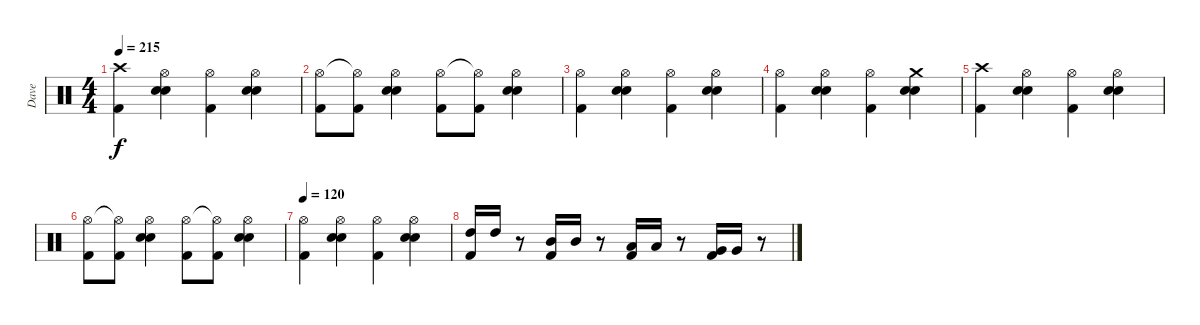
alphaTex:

\track ("Dave" "Dave") {instrument percussion}
\staff {score}
\articulation defaults
\ts (4 4)
\tempo 215
\clef neutral
\ks c
("Crash high (hit)" "Kick (hit) 2").4{dy f} ("Hi-Hat (open)" "Electric Snare (hit)" "Electric Snare (hit)").4 ("Hi-Hat (open)" "Kick (hit) 2").4 ("Hi-Hat (open)" "Electric Snare (hit)" "Electric Snare (hit)").4 |
("Hi-Hat (open)" "Kick (hit) 2").8 ("Hi-Hat (open)"{t} "Kick (hit) 2").8 ("Hi-Hat (open)" "Electric Snare (hit)" "Electric Snare (hit)").4 ("Hi-Hat (open)" "Kick (hit) 2").8 ("Hi-Hat (open)"{t} "Kick (hit) 2").8 ("Hi-Hat (open)" "Electric Snare (hit)" "Electric Snare (hit)").4 |
("Hi-Hat (open)" "Kick (hit) 2").4 ("Hi-Hat (open)" "Electric Snare (hit)" "Electric Snare (hit)").4 ("Hi-Hat (open)" "Kick (hit) 2").4 ("Hi-Hat (open)" "Electric Snare (hit)" "Electric Snare (hit)").4 |
("Hi-Hat (open)" "Kick (hit) 2").4 ("Hi-Hat (open)" "Electric Snare (hit)" "Electric Snare (hit)").4 ("Hi-Hat (open)" "Kick (hit) 2").4 ("Crash medium (hit)" "Electric Snare (hit)" "Electric Snare (hit)").4 |
("Crash high (hit)" "Kick (hit) 2").4 ("Hi-Hat (open)" "Electric Snare (hit)" "Electric Snare (hit)").4 ("Hi-Hat (open)" "Kick (hit) 2").4 ("Hi-Hat (open)" "Electric Snare (hit)" "Electric Snare (hit)").4 |
("Hi-Hat (open)" "Kick (hit) 2").8 ("Hi-Hat (open)"{t} "Kick (hit) 2").8 ("Hi-Hat (open)" "Electric Snare (hit)" "Electric Snare (hit)").4 ("Hi-Hat (open)" "Kick (hit) 2").8 ("Hi-Hat (open)"{t} "Kick (hit) 2").8 ("Hi-Hat (open)" "Electric Snare (hit)" "Electric Snare (hit)").4 |
\tempo 120
("Hi-Hat (open)" "Kick (hit) 2").4 ("Hi-Hat (open)" "Electric Snare (hit)" "Electric Snare (hit)").4 ("Hi-Hat (open)" "Kick (hit) 2").4 ("Hi-Hat (open)" "Electric Snare (hit)" "Electric Snare (hit)").4 |
("Kick (hit) 2" "High Tom (hit)").16 "High Tom (hit)".16 r.8 ("Kick (hit) 2" "Mid Tom (hit)").16 "Mid Tom (hit)".16 r.8 ("Kick (hit) 2" "Low Tom (hit)").16 "Low Tom (hit)".16 r.8 ("Kick (hit) 2" "Very Low Tom (hit)").16 "Very Low Tom (hit)".16 r.8
